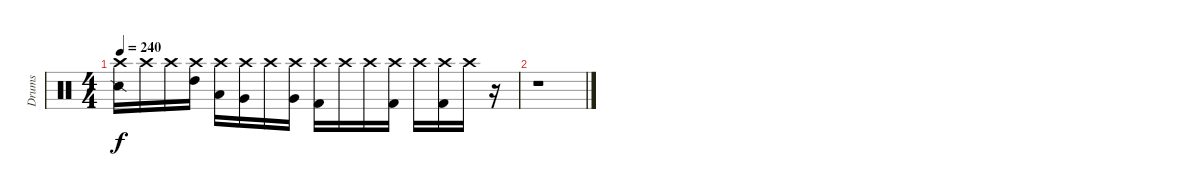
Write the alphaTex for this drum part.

\track ("Drums" "Drums") {instrument percussion}
\staff {score}
\articulation defaults
\ts (4 4)
\tempo 240
\clef neutral
\ks c
("Crash high (hit)" "Snare (side stick) 2").16{dy f} "Crash high (hit)".16 "Crash high (hit)".16 ("High Tom (hit)" "Crash high (hit)").16 ("Crash high (hit)" "Low Tom (hit)").16 ("Crash high (hit)" "Very Low Tom (hit)").16 "Crash high (hit)".16 ("Very Low Tom (hit)" "Crash high (hit)").16 ("Crash high (hit)" "Kick (hit) 2").16 "Crash high (hit)".16 "Crash high (hit)".16 ("Kick (hit) 2" "Crash high (hit)").16 "Crash high (hit)".16 ("Crash high (hit)" "Kick (hit) 2").16 "Crash high (hit)".16 r.16 |
r.1
